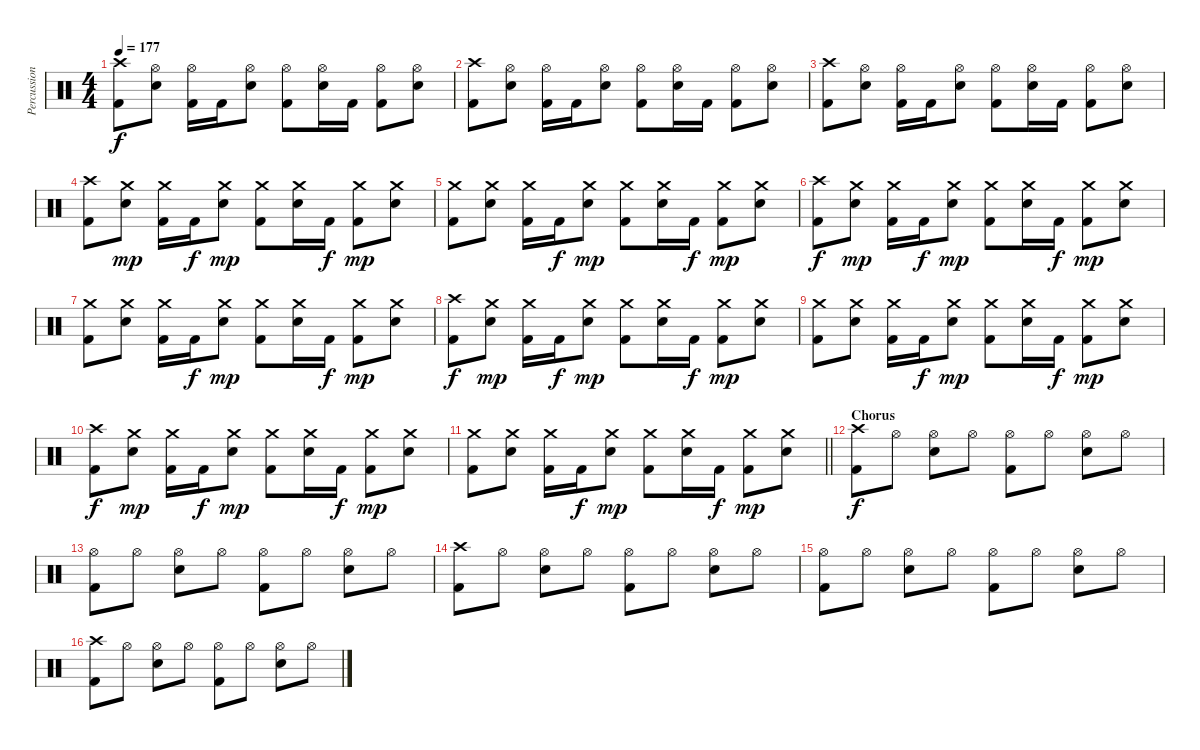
\track ("Percussion" "Percussion") {instrument percussion}
\staff {score}
\articulation defaults
\ts (4 4)
\tempo 177
\clef neutral
\ks c
("Crash high (hit)" "Kick (hit) 2").8{dy f} ("Hi-Hat (open)" "Snare (hit) 2").8 ("Hi-Hat (open)" "Kick (hit) 2").16 "Kick (hit) 2".16 ("Hi-Hat (open)" "Snare (hit) 2").8 ("Hi-Hat (open)" "Kick (hit) 2").8 ("Hi-Hat (open)" "Snare (hit) 2").16 "Kick (hit) 2".16 ("Hi-Hat (open)" "Kick (hit) 2").8 ("Hi-Hat (open)" "Snare (hit) 2").8 |
("Crash high (hit)" "Kick (hit) 2").8 ("Hi-Hat (open)" "Snare (hit) 2").8 ("Hi-Hat (open)" "Kick (hit) 2").16 "Kick (hit) 2".16 ("Hi-Hat (open)" "Snare (hit) 2").8 ("Hi-Hat (open)" "Kick (hit) 2").8 ("Hi-Hat (open)" "Snare (hit) 2").16 "Kick (hit) 2".16 ("Hi-Hat (open)" "Kick (hit) 2").8 ("Hi-Hat (open)" "Snare (hit) 2").8 |
("Crash high (hit)" "Kick (hit) 2").8 ("Hi-Hat (open)" "Snare (hit) 2").8 ("Hi-Hat (open)" "Kick (hit) 2").16 "Kick (hit) 2".16 ("Hi-Hat (open)" "Snare (hit) 2").8 ("Hi-Hat (open)" "Kick (hit) 2").8 ("Hi-Hat (open)" "Snare (hit) 2").16 "Kick (hit) 2".16 ("Hi-Hat (open)" "Kick (hit) 2").8 ("Hi-Hat (open)" "Snare (hit) 2").8 |
("Crash high (hit)" "Kick (hit) 2").8 ("Crash medium (hit)" "Snare (hit) 2").8{dy mp} ("Crash medium (hit)" "Kick (hit) 2").16 "Kick (hit) 2".16{dy f} ("Crash medium (hit)" "Snare (hit) 2").8{dy mp} ("Crash medium (hit)" "Kick (hit) 2").8 ("Crash medium (hit)" "Snare (hit) 2").16 "Kick (hit) 2".16{dy f} ("Crash medium (hit)" "Kick (hit) 2").8{dy mp} ("Crash medium (hit)" "Snare (hit) 2").8 |
("Crash medium (hit)" "Kick (hit) 2").8 ("Crash medium (hit)" "Snare (hit) 2").8 ("Crash medium (hit)" "Kick (hit) 2").16 "Kick (hit) 2".16{dy f} ("Crash medium (hit)" "Snare (hit) 2").8{dy mp} ("Crash medium (hit)" "Kick (hit) 2").8 ("Crash medium (hit)" "Snare (hit) 2").16 "Kick (hit) 2".16{dy f} ("Crash medium (hit)" "Kick (hit) 2").8{dy mp} ("Crash medium (hit)" "Snare (hit) 2").8 |
("Crash high (hit)" "Kick (hit) 2").8{dy f} ("Crash medium (hit)" "Snare (hit) 2").8{dy mp} ("Crash medium (hit)" "Kick (hit) 2").16 "Kick (hit) 2".16{dy f} ("Crash medium (hit)" "Snare (hit) 2").8{dy mp} ("Crash medium (hit)" "Kick (hit) 2").8 ("Crash medium (hit)" "Snare (hit) 2").16 "Kick (hit) 2".16{dy f} ("Crash medium (hit)" "Kick (hit) 2").8{dy mp} ("Crash medium (hit)" "Snare (hit) 2").8 |
("Crash medium (hit)" "Kick (hit) 2").8 ("Crash medium (hit)" "Snare (hit) 2").8 ("Crash medium (hit)" "Kick (hit) 2").16 "Kick (hit) 2".16{dy f} ("Crash medium (hit)" "Snare (hit) 2").8{dy mp} ("Crash medium (hit)" "Kick (hit) 2").8 ("Crash medium (hit)" "Snare (hit) 2").16 "Kick (hit) 2".16{dy f} ("Crash medium (hit)" "Kick (hit) 2").8{dy mp} ("Crash medium (hit)" "Snare (hit) 2").8 |
("Crash high (hit)" "Kick (hit) 2").8{dy f} ("Crash medium (hit)" "Snare (hit) 2").8{dy mp} ("Crash medium (hit)" "Kick (hit) 2").16 "Kick (hit) 2".16{dy f} ("Crash medium (hit)" "Snare (hit) 2").8{dy mp} ("Crash medium (hit)" "Kick (hit) 2").8 ("Crash medium (hit)" "Snare (hit) 2").16 "Kick (hit) 2".16{dy f} ("Crash medium (hit)" "Kick (hit) 2").8{dy mp} ("Crash medium (hit)" "Snare (hit) 2").8 |
("Crash medium (hit)" "Kick (hit) 2").8 ("Crash medium (hit)" "Snare (hit) 2").8 ("Crash medium (hit)" "Kick (hit) 2").16 "Kick (hit) 2".16{dy f} ("Crash medium (hit)" "Snare (hit) 2").8{dy mp} ("Crash medium (hit)" "Kick (hit) 2").8 ("Crash medium (hit)" "Snare (hit) 2").16 "Kick (hit) 2".16{dy f} ("Crash medium (hit)" "Kick (hit) 2").8{dy mp} ("Crash medium (hit)" "Snare (hit) 2").8 |
("Crash high (hit)" "Kick (hit) 2").8{dy f} ("Crash medium (hit)" "Snare (hit) 2").8{dy mp} ("Crash medium (hit)" "Kick (hit) 2").16 "Kick (hit) 2".16{dy f} ("Crash medium (hit)" "Snare (hit) 2").8{dy mp} ("Crash medium (hit)" "Kick (hit) 2").8 ("Crash medium (hit)" "Snare (hit) 2").16 "Kick (hit) 2".16{dy f} ("Crash medium (hit)" "Kick (hit) 2").8{dy mp} ("Crash medium (hit)" "Snare (hit) 2").8 |
\barLineRight lightlight
("Crash medium (hit)" "Kick (hit) 2").8 ("Crash medium (hit)" "Snare (hit) 2").8 ("Crash medium (hit)" "Kick (hit) 2").16 "Kick (hit) 2".16{dy f} ("Crash medium (hit)" "Snare (hit) 2").8{dy mp} ("Crash medium (hit)" "Kick (hit) 2").8 ("Crash medium (hit)" "Snare (hit) 2").16 "Kick (hit) 2".16{dy f} ("Crash medium (hit)" "Kick (hit) 2").8{dy mp} ("Crash medium (hit)" "Snare (hit) 2").8 |
\section ("" "Chorus")
("Crash high (hit)" "Kick (hit) 2").8{dy f} "Hi-Hat (open)".8 ("Hi-Hat (open)" "Snare (hit) 2").8 "Hi-Hat (open)".8 ("Hi-Hat (open)" "Kick (hit) 2").8 "Hi-Hat (open)".8 ("Hi-Hat (open)" "Snare (hit) 2").8 "Hi-Hat (open)".8 |
("Hi-Hat (open)" "Kick (hit) 2").8 "Hi-Hat (open)".8 ("Hi-Hat (open)" "Snare (hit) 2").8 "Hi-Hat (open)".8 ("Hi-Hat (open)" "Kick (hit) 2").8 "Hi-Hat (open)".8 ("Hi-Hat (open)" "Snare (hit) 2").8 "Hi-Hat (open)".8 |
("Crash high (hit)" "Kick (hit) 2").8 "Hi-Hat (open)".8 ("Hi-Hat (open)" "Snare (hit) 2").8 "Hi-Hat (open)".8 ("Hi-Hat (open)" "Kick (hit) 2").8 "Hi-Hat (open)".8 ("Hi-Hat (open)" "Snare (hit) 2").8 "Hi-Hat (open)".8 |
("Hi-Hat (open)" "Kick (hit) 2").8 "Hi-Hat (open)".8 ("Hi-Hat (open)" "Snare (hit) 2").8 "Hi-Hat (open)".8 ("Hi-Hat (open)" "Kick (hit) 2").8 "Hi-Hat (open)".8 ("Hi-Hat (open)" "Snare (hit) 2").8 "Hi-Hat (open)".8 |
("Crash high (hit)" "Kick (hit) 2").8 "Hi-Hat (open)".8 ("Hi-Hat (open)" "Snare (hit) 2").8 "Hi-Hat (open)".8 ("Hi-Hat (open)" "Kick (hit) 2").8 "Hi-Hat (open)".8 ("Hi-Hat (open)" "Snare (hit) 2").8 "Hi-Hat (open)".8
